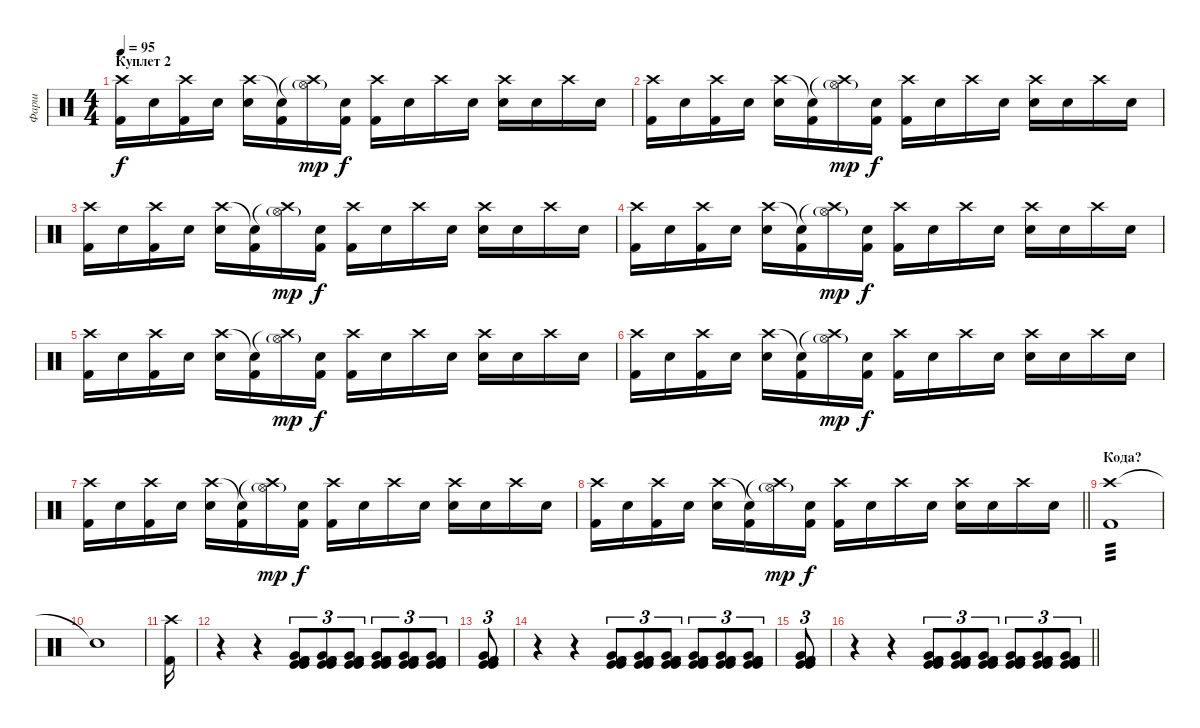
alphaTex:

\track ("Фарш" "Фарш") {instrument percussion}
\staff {score}
\articulation defaults
\ts (4 4)
\section ("" "Куплет 2")
\tempo 95
\clef neutral
\ks c
("Crash high (hit)" "Kick (hit) 2").16{dy f} "Snare (hit)".16 ("Crash high (hit)" "Kick (hit) 2").16 "Snare (hit)".16 ("Crash high (hit)" "Electric Snare (hit)").16 ("Snare (hit)"{t} "Kick (hit) 2").16 ("Crash high (hit)"{t} "Hi-Hat (open)"{g}).16{dy mp} ("Snare (hit)" "Kick (hit) 2").16{dy f} ("Crash high (hit)" "Kick (hit) 2").16 "Snare (hit)".16 "Crash high (hit)".16 "Snare (hit)".16 ("Crash high (hit)" "Electric Snare (hit)").16 "Snare (hit)".16 "Crash high (hit)".16 "Snare (hit)".16 |
("Crash high (hit)" "Kick (hit) 2").16 "Snare (hit)".16 ("Crash high (hit)" "Kick (hit) 2").16 "Snare (hit)".16 ("Crash high (hit)" "Electric Snare (hit)").16 ("Snare (hit)"{t} "Kick (hit) 2").16 ("Crash high (hit)"{t} "Hi-Hat (open)"{g}).16{dy mp} ("Snare (hit)" "Kick (hit) 2").16{dy f} ("Crash high (hit)" "Kick (hit) 2").16 "Snare (hit)".16 "Crash high (hit)".16 "Snare (hit)".16 ("Crash high (hit)" "Electric Snare (hit)").16 "Snare (hit)".16 "Crash high (hit)".16 "Snare (hit)".16 |
("Crash high (hit)" "Kick (hit) 2").16 "Snare (hit)".16 ("Crash high (hit)" "Kick (hit) 2").16 "Snare (hit)".16 ("Crash high (hit)" "Electric Snare (hit)").16 ("Snare (hit)"{t} "Kick (hit) 2").16 ("Crash high (hit)"{t} "Hi-Hat (open)"{g}).16{dy mp} ("Snare (hit)" "Kick (hit) 2").16{dy f} ("Crash high (hit)" "Kick (hit) 2").16 "Snare (hit)".16 "Crash high (hit)".16 "Snare (hit)".16 ("Crash high (hit)" "Electric Snare (hit)").16 "Snare (hit)".16 "Crash high (hit)".16 "Snare (hit)".16 |
("Crash high (hit)" "Kick (hit) 2").16 "Snare (hit)".16 ("Crash high (hit)" "Kick (hit) 2").16 "Snare (hit)".16 ("Crash high (hit)" "Electric Snare (hit)").16 ("Snare (hit)"{t} "Kick (hit) 2").16 ("Crash high (hit)"{t} "Hi-Hat (open)"{g}).16{dy mp} ("Snare (hit)" "Kick (hit) 2").16{dy f} ("Crash high (hit)" "Kick (hit) 2").16 "Snare (hit)".16 "Crash high (hit)".16 "Snare (hit)".16 ("Crash high (hit)" "Electric Snare (hit)").16 "Snare (hit)".16 "Crash high (hit)".16 "Snare (hit)".16 |
("Crash high (hit)" "Kick (hit) 2").16 "Snare (hit)".16 ("Crash high (hit)" "Kick (hit) 2").16 "Snare (hit)".16 ("Crash high (hit)" "Electric Snare (hit)").16 ("Snare (hit)"{t} "Kick (hit) 2").16 ("Crash high (hit)"{t} "Hi-Hat (open)"{g}).16{dy mp} ("Snare (hit)" "Kick (hit) 2").16{dy f} ("Crash high (hit)" "Kick (hit) 2").16 "Snare (hit)".16 "Crash high (hit)".16 "Snare (hit)".16 ("Crash high (hit)" "Electric Snare (hit)").16 "Snare (hit)".16 "Crash high (hit)".16 "Snare (hit)".16 |
("Crash high (hit)" "Kick (hit) 2").16 "Snare (hit)".16 ("Crash high (hit)" "Kick (hit) 2").16 "Snare (hit)".16 ("Crash high (hit)" "Electric Snare (hit)").16 ("Snare (hit)"{t} "Kick (hit) 2").16 ("Crash high (hit)"{t} "Hi-Hat (open)"{g}).16{dy mp} ("Snare (hit)" "Kick (hit) 2").16{dy f} ("Crash high (hit)" "Kick (hit) 2").16 "Snare (hit)".16 "Crash high (hit)".16 "Snare (hit)".16 ("Crash high (hit)" "Electric Snare (hit)").16 "Snare (hit)".16 "Crash high (hit)".16 "Snare (hit)".16 |
("Crash high (hit)" "Kick (hit) 2").16 "Snare (hit)".16 ("Crash high (hit)" "Kick (hit) 2").16 "Snare (hit)".16 ("Crash high (hit)" "Electric Snare (hit)").16 ("Snare (hit)"{t} "Kick (hit) 2").16 ("Crash high (hit)"{t} "Hi-Hat (open)"{g}).16{dy mp} ("Snare (hit)" "Kick (hit) 2").16{dy f} ("Crash high (hit)" "Kick (hit) 2").16 "Snare (hit)".16 "Crash high (hit)".16 "Snare (hit)".16 ("Crash high (hit)" "Electric Snare (hit)").16 "Snare (hit)".16 "Crash high (hit)".16 "Snare (hit)".16 |
\barLineRight lightlight
("Crash high (hit)" "Kick (hit) 2").16 "Snare (hit)".16 ("Crash high (hit)" "Kick (hit) 2").16 "Snare (hit)".16 ("Crash high (hit)" "Electric Snare (hit)").16 ("Snare (hit)"{t} "Kick (hit) 2").16 ("Crash high (hit)"{t} "Hi-Hat (open)"{g}).16{dy mp} ("Snare (hit)" "Kick (hit) 2").16{dy f} ("Crash high (hit)" "Kick (hit) 2").16 "Snare (hit)".16 "Crash high (hit)".16 "Snare (hit)".16 ("Crash high (hit)" "Electric Snare (hit)").16 "Snare (hit)".16 "Crash high (hit)".16 "Snare (hit)".16 |
\section ("" "Кода?")
("Crash high (hit)" "Kick (hit) 2").1{tp 3} |
"Snare (hit)"{t}.1 |
("Crash high (hit)" "Kick (hit) 2").16 |
r.4 r.4 ("Kick (hit)" "Kick (hit) 2" "Very Low Tom (hit)" "Kick (hit)" "Kick (hit) 2").8{tu (3 2)} ("Kick (hit)" "Kick (hit) 2" "Very Low Tom (hit)" "Kick (hit)" "Kick (hit) 2").8{tu (3 2)} ("Kick (hit)" "Kick (hit) 2" "Very Low Tom (hit)" "Kick (hit)" "Kick (hit) 2").8{tu (3 2)} ("Kick (hit)" "Kick (hit) 2" "Very Low Tom (hit)" "Kick (hit)" "Kick (hit) 2").8{tu (3 2)} ("Kick (hit)" "Kick (hit) 2" "Very Low Tom (hit)" "Kick (hit)" "Kick (hit) 2").8{tu (3 2)} ("Kick (hit)" "Kick (hit) 2" "Very Low Tom (hit)" "Kick (hit)" "Kick (hit) 2").8{tu (3 2)} |
("Kick (hit)" "Kick (hit) 2" "Very Low Tom (hit)" "Kick (hit)" "Kick (hit) 2").8{tu (3 2)} |
r.4 r.4 ("Kick (hit)" "Kick (hit) 2" "Very Low Tom (hit)" "Kick (hit)" "Kick (hit) 2").8{tu (3 2)} ("Kick (hit)" "Kick (hit) 2" "Very Low Tom (hit)" "Kick (hit)" "Kick (hit) 2").8{tu (3 2)} ("Kick (hit)" "Kick (hit) 2" "Very Low Tom (hit)" "Kick (hit)" "Kick (hit) 2").8{tu (3 2)} ("Kick (hit)" "Kick (hit) 2" "Very Low Tom (hit)" "Kick (hit)" "Kick (hit) 2").8{tu (3 2)} ("Kick (hit)" "Kick (hit) 2" "Very Low Tom (hit)" "Kick (hit)" "Kick (hit) 2").8{tu (3 2)} ("Kick (hit)" "Kick (hit) 2" "Very Low Tom (hit)" "Kick (hit)" "Kick (hit) 2").8{tu (3 2)} |
("Kick (hit)" "Kick (hit) 2" "Very Low Tom (hit)" "Kick (hit)" "Kick (hit) 2").8{tu (3 2)} |
\barLineRight lightlight
r.4 r.4 ("Kick (hit)" "Kick (hit) 2" "Very Low Tom (hit)" "Kick (hit)" "Kick (hit) 2").8{tu (3 2)} ("Kick (hit)" "Kick (hit) 2" "Very Low Tom (hit)" "Kick (hit)" "Kick (hit) 2").8{tu (3 2)} ("Kick (hit)" "Kick (hit) 2" "Very Low Tom (hit)" "Kick (hit)" "Kick (hit) 2").8{tu (3 2)} ("Kick (hit)" "Kick (hit) 2" "Very Low Tom (hit)" "Kick (hit)" "Kick (hit) 2").8{tu (3 2)} ("Kick (hit)" "Kick (hit) 2" "Very Low Tom (hit)" "Kick (hit)" "Kick (hit) 2").8{tu (3 2)} ("Kick (hit)" "Kick (hit) 2" "Very Low Tom (hit)" "Kick (hit)" "Kick (hit) 2").8{tu (3 2)}
